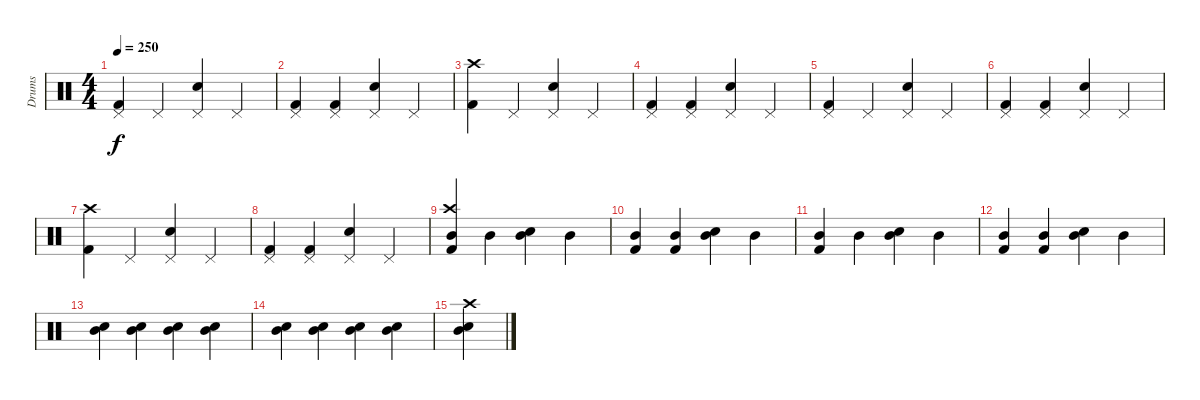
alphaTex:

\track ("Drums" "Drums") {instrument percussion}
\staff {score}
\articulation defaults
\ts (4 4)
\tempo 250
\clef neutral
\ks c
("Pedal Hi-Hat (hit)" "Kick (hit) 2").4{dy f} "Pedal Hi-Hat (hit)".4 ("Pedal Hi-Hat (hit)" "Electric Snare (hit)").4 "Pedal Hi-Hat (hit)".4 |
("Pedal Hi-Hat (hit)" "Kick (hit) 2").4 ("Pedal Hi-Hat (hit)" "Kick (hit) 2").4 ("Pedal Hi-Hat (hit)" "Electric Snare (hit)").4 "Pedal Hi-Hat (hit)".4 |
("Kick (hit) 2" "Crash high (hit)").4 "Pedal Hi-Hat (hit)".4 ("Pedal Hi-Hat (hit)" "Electric Snare (hit)").4 "Pedal Hi-Hat (hit)".4 |
("Pedal Hi-Hat (hit)" "Kick (hit) 2").4 ("Pedal Hi-Hat (hit)" "Kick (hit) 2").4 ("Pedal Hi-Hat (hit)" "Electric Snare (hit)").4 "Pedal Hi-Hat (hit)".4 |
("Pedal Hi-Hat (hit)" "Kick (hit) 2").4 "Pedal Hi-Hat (hit)".4 ("Pedal Hi-Hat (hit)" "Electric Snare (hit)").4 "Pedal Hi-Hat (hit)".4 |
("Pedal Hi-Hat (hit)" "Kick (hit) 2").4 ("Pedal Hi-Hat (hit)" "Kick (hit) 2").4 ("Pedal Hi-Hat (hit)" "Electric Snare (hit)").4 "Pedal Hi-Hat (hit)".4 |
("Kick (hit) 2" "Crash high (hit)").4 "Pedal Hi-Hat (hit)".4 ("Pedal Hi-Hat (hit)" "Electric Snare (hit)").4 "Pedal Hi-Hat (hit)".4 |
("Pedal Hi-Hat (hit)" "Kick (hit) 2").4 ("Pedal Hi-Hat (hit)" "Kick (hit) 2").4 ("Pedal Hi-Hat (hit)" "Electric Snare (hit)").4 "Pedal Hi-Hat (hit)".4 |
("Mid Tom (hit)" "Crash high (hit)" "Kick (hit) 2").4 "Mid Tom (hit)".4 ("Mid Tom (hit)" "Electric Snare (hit)").4 "Mid Tom (hit)".4 |
("Mid Tom (hit)" "Kick (hit) 2").4 ("Mid Tom (hit)" "Kick (hit) 2").4 ("Mid Tom (hit)" "Electric Snare (hit)").4 "Mid Tom (hit)".4 |
("Mid Tom (hit)" "Kick (hit) 2").4 "Mid Tom (hit)".4 ("Mid Tom (hit)" "Electric Snare (hit)").4 "Mid Tom (hit)".4 |
("Mid Tom (hit)" "Kick (hit) 2").4 ("Mid Tom (hit)" "Kick (hit) 2").4 ("Mid Tom (hit)" "Electric Snare (hit)").4 "Mid Tom (hit)".4 |
("Mid Tom (hit)" "Electric Snare (hit)").4 ("Mid Tom (hit)" "Electric Snare (hit)").4 ("Mid Tom (hit)" "Electric Snare (hit)").4 ("Mid Tom (hit)" "Electric Snare (hit)").4 |
("Mid Tom (hit)" "Electric Snare (hit)").4 ("Mid Tom (hit)" "Electric Snare (hit)").4 ("Mid Tom (hit)" "Electric Snare (hit)").4 ("Mid Tom (hit)" "Electric Snare (hit)").4 |
("Mid Tom (hit)" "Electric Snare (hit)" "Crash high (hit)").4
